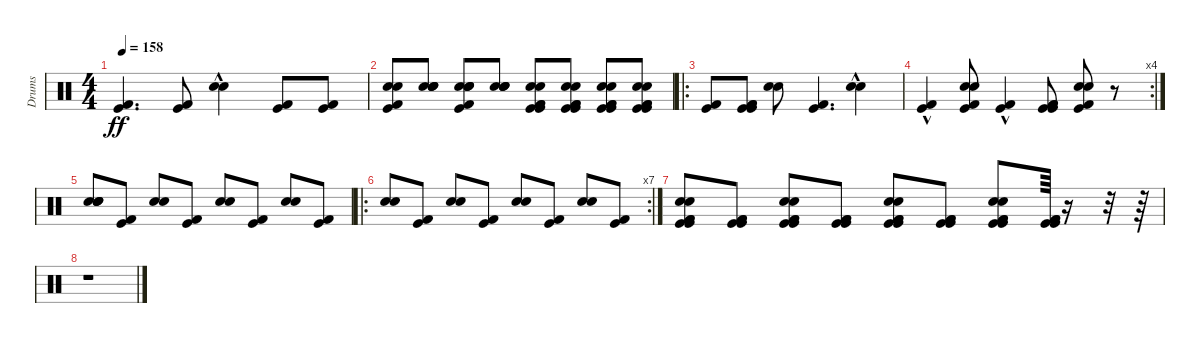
\track ("Drums" "Drums") {instrument percussion}
\staff {score}
\articulation defaults
\ts (4 4)
\tempo 158
\clef neutral
\ks c
("Kick (hit)" "Kick (hit) 2").4{d dy ff} ("Kick (hit)" "Kick (hit) 2").8 ("Snare (hit) 2"{hac} "Electric Snare (hit)"{hac}).4 ("Kick (hit)" "Kick (hit) 2").8 ("Kick (hit)" "Kick (hit) 2").8 |
("Kick (hit)" "Kick (hit) 2" "Snare (hit) 2" "Electric Snare (hit)").8 ("Snare (hit) 2" "Electric Snare (hit)" "Snare (hit) 2" "Electric Snare (hit)").8 ("Kick (hit)" "Kick (hit) 2" "Snare (hit) 2" "Electric Snare (hit)" "Snare (hit) 2" "Electric Snare (hit)").8 ("Snare (hit) 2" "Electric Snare (hit)" "Snare (hit) 2" "Electric Snare (hit)").8 ("Kick (hit)" "Kick (hit) 2" "Snare (hit) 2" "Electric Snare (hit)" "Kick (hit)" "Kick (hit) 2").8 ("Kick (hit)" "Kick (hit) 2" "Snare (hit) 2" "Electric Snare (hit)" "Kick (hit)" "Kick (hit) 2").8 ("Kick (hit)" "Kick (hit) 2" "Snare (hit) 2" "Electric Snare (hit)" "Kick (hit)" "Kick (hit) 2").8 ("Kick (hit)" "Kick (hit) 2" "Snare (hit) 2" "Electric Snare (hit)" "Kick (hit)" "Kick (hit) 2").8 |
\ro
("Kick (hit)" "Kick (hit) 2").8 ("Kick (hit)" "Kick (hit) 2" "Kick (hit)" "Kick (hit) 2").8 ("Snare (hit) 2" "Electric Snare (hit)").8 ("Kick (hit)" "Kick (hit) 2").4{d} ("Snare (hit) 2"{hac} "Electric Snare (hit)"{hac}).4 |
\rc 4
("Kick (hit)"{hac} "Kick (hit) 2"{hac}).4 ("Kick (hit)" "Kick (hit) 2" "Snare (hit) 2" "Electric Snare (hit)").8 ("Kick (hit)"{hac} "Kick (hit) 2"{hac}).4 ("Kick (hit)" "Kick (hit) 2" "Kick (hit)" "Kick (hit) 2").8 ("Snare (hit) 2" "Electric Snare (hit)" "Kick (hit)" "Kick (hit) 2").8 r.8 |
("Snare (hit) 2" "Electric Snare (hit)" "Snare (hit) 2" "Electric Snare (hit)").8 ("Kick (hit)" "Kick (hit) 2").8 ("Snare (hit) 2" "Electric Snare (hit)").8 ("Kick (hit)" "Kick (hit) 2").8 ("Snare (hit) 2" "Electric Snare (hit)").8 ("Kick (hit)" "Kick (hit) 2").8 ("Snare (hit) 2" "Electric Snare (hit)").8 ("Kick (hit)" "Kick (hit) 2").8 |
\ro
\rc 7
("Snare (hit) 2" "Electric Snare (hit)").8 ("Kick (hit)" "Kick (hit) 2").8 ("Snare (hit) 2" "Electric Snare (hit)").8 ("Kick (hit)" "Kick (hit) 2").8 ("Snare (hit) 2" "Electric Snare (hit)").8 ("Kick (hit)" "Kick (hit) 2").8 ("Snare (hit) 2" "Electric Snare (hit)").8 ("Kick (hit)" "Kick (hit) 2").8 |
("Kick (hit)" "Kick (hit) 2" "Snare (hit) 2" "Electric Snare (hit)" "Kick (hit)" "Kick (hit) 2").8 ("Kick (hit)" "Kick (hit) 2" "Kick (hit)" "Kick (hit) 2").8 ("Kick (hit)" "Kick (hit) 2" "Snare (hit) 2" "Electric Snare (hit)" "Kick (hit)" "Kick (hit) 2").8 ("Kick (hit)" "Kick (hit) 2" "Kick (hit)" "Kick (hit) 2").8 ("Kick (hit)" "Kick (hit) 2" "Snare (hit) 2" "Electric Snare (hit)" "Kick (hit)" "Kick (hit) 2").8 ("Kick (hit)" "Kick (hit) 2" "Kick (hit)" "Kick (hit) 2").8 ("Kick (hit)" "Kick (hit) 2" "Snare (hit) 2" "Electric Snare (hit)" "Kick (hit)" "Kick (hit) 2").8 ("Kick (hit)" "Kick (hit) 2" "Kick (hit)" "Kick (hit) 2").64 r.16 r.32 r.64 |
r.1
